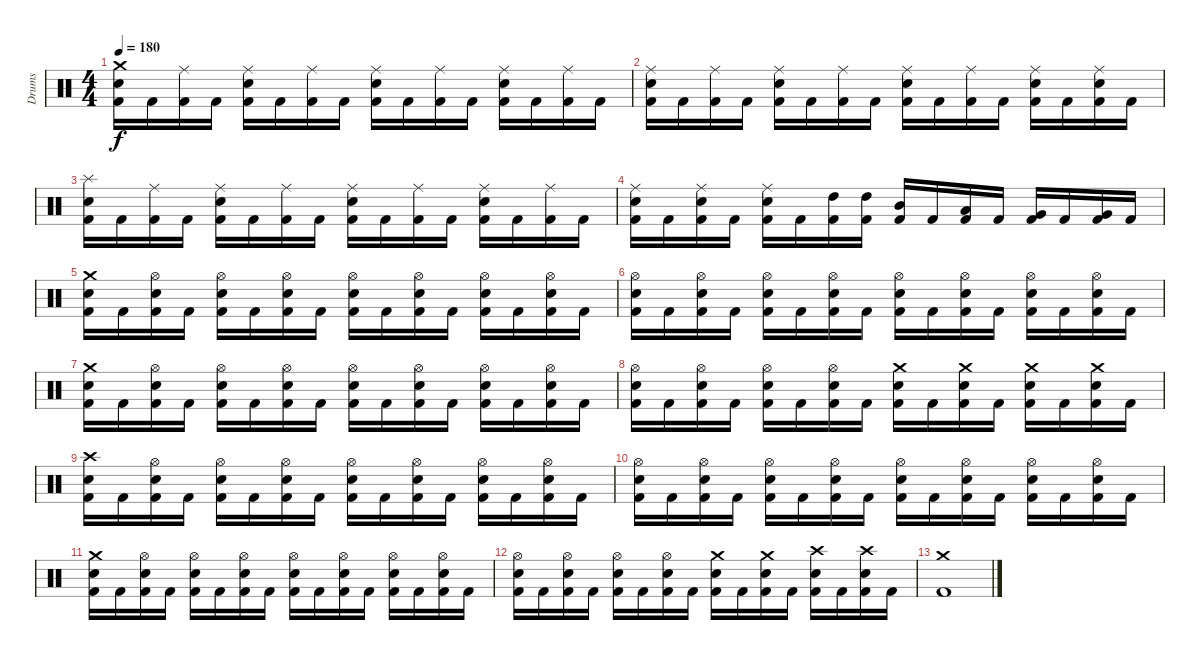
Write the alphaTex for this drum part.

\track ("Drums" "Drums") {instrument percussion}
\staff {score}
\articulation defaults
\ts (4 4)
\tempo 180
\clef neutral
\ks c
("Kick (hit) 2" "Electric Snare (hit)" "Crash medium (hit)").16{dy f} "Kick (hit) 2".16 ("Kick (hit) 2" "Ride (middle)").16 "Kick (hit) 2".16 ("Kick (hit) 2" "Electric Snare (hit)" "Ride (middle)").16 "Kick (hit) 2".16 ("Kick (hit) 2" "Ride (middle)").16 "Kick (hit) 2".16 ("Kick (hit) 2" "Electric Snare (hit)" "Ride (middle)").16 "Kick (hit) 2".16 ("Kick (hit) 2" "Ride (middle)").16 "Kick (hit) 2".16 ("Kick (hit) 2" "Electric Snare (hit)" "Ride (middle)").16 "Kick (hit) 2".16 ("Kick (hit) 2" "Ride (middle)").16 "Kick (hit) 2".16 |
("Kick (hit) 2" "Electric Snare (hit)" "Ride (middle)").16 "Kick (hit) 2".16 ("Kick (hit) 2" "Ride (middle)").16 "Kick (hit) 2".16 ("Kick (hit) 2" "Electric Snare (hit)" "Ride (middle)").16 "Kick (hit) 2".16 ("Kick (hit) 2" "Ride (middle)").16 "Kick (hit) 2".16 ("Kick (hit) 2" "Electric Snare (hit)" "Ride (middle)").16 "Kick (hit) 2".16 ("Kick (hit) 2" "Ride (middle)").16 "Kick (hit) 2".16 ("Kick (hit) 2" "Electric Snare (hit)" "Ride (middle)").16 "Kick (hit) 2".16 ("Kick (hit) 2" "Electric Snare (hit)" "Ride (middle)").16 "Kick (hit) 2".16 |
("Kick (hit) 2" "Electric Snare (hit)" "Splash (hit)").16 "Kick (hit) 2".16 ("Kick (hit) 2" "Ride (middle)").16 "Kick (hit) 2".16 ("Kick (hit) 2" "Electric Snare (hit)" "Ride (middle)").16 "Kick (hit) 2".16 ("Kick (hit) 2" "Ride (middle)").16 "Kick (hit) 2".16 ("Kick (hit) 2" "Electric Snare (hit)" "Ride (middle)").16 "Kick (hit) 2".16 ("Kick (hit) 2" "Ride (middle)").16 "Kick (hit) 2".16 ("Kick (hit) 2" "Electric Snare (hit)" "Ride (middle)").16 "Kick (hit) 2".16 ("Kick (hit) 2" "Ride (middle)").16 "Kick (hit) 2".16 |
("Kick (hit) 2" "Electric Snare (hit)" "Ride (middle)").16 "Kick (hit) 2".16 ("Kick (hit) 2" "Electric Snare (hit)" "Ride (middle)").16 "Kick (hit) 2".16 ("Kick (hit) 2" "Electric Snare (hit)" "Ride (middle)").16 "Kick (hit) 2".16 ("Kick (hit) 2" "High Tom (hit)").16 ("Kick (hit) 2" "High Tom (hit)").16 ("Kick (hit) 2" "Mid Tom (hit)").16 "Kick (hit) 2".16 ("Kick (hit) 2" "Low Tom (hit)").16 "Kick (hit) 2".16 ("Kick (hit) 2" "Very Low Tom (hit)").16 "Kick (hit) 2".16 ("Kick (hit) 2" "Very Low Tom (hit)").16 "Kick (hit) 2".16 |
("Kick (hit) 2" "Electric Snare (hit)" "Crash medium (hit)").16 "Kick (hit) 2".16 ("Kick (hit) 2" "Electric Snare (hit)" "Hi-Hat (open)").16 "Kick (hit) 2".16 ("Kick (hit) 2" "Electric Snare (hit)" "Hi-Hat (open)").16 "Kick (hit) 2".16 ("Kick (hit) 2" "Electric Snare (hit)" "Hi-Hat (open)").16 "Kick (hit) 2".16 ("Kick (hit) 2" "Electric Snare (hit)" "Hi-Hat (open)").16 "Kick (hit) 2".16 ("Kick (hit) 2" "Electric Snare (hit)" "Hi-Hat (open)").16 "Kick (hit) 2".16 ("Kick (hit) 2" "Electric Snare (hit)" "Hi-Hat (open)").16 "Kick (hit) 2".16 ("Kick (hit) 2" "Electric Snare (hit)" "Hi-Hat (open)").16 "Kick (hit) 2".16 |
("Kick (hit) 2" "Electric Snare (hit)" "Hi-Hat (open)").16 "Kick (hit) 2".16 ("Kick (hit) 2" "Electric Snare (hit)" "Hi-Hat (open)").16 "Kick (hit) 2".16 ("Kick (hit) 2" "Electric Snare (hit)" "Hi-Hat (open)").16 "Kick (hit) 2".16 ("Kick (hit) 2" "Electric Snare (hit)" "Hi-Hat (open)").16 "Kick (hit) 2".16 ("Kick (hit) 2" "Electric Snare (hit)" "Hi-Hat (open)").16 "Kick (hit) 2".16 ("Kick (hit) 2" "Electric Snare (hit)" "Hi-Hat (open)").16 "Kick (hit) 2".16 ("Kick (hit) 2" "Electric Snare (hit)" "Hi-Hat (open)").16 "Kick (hit) 2".16 ("Kick (hit) 2" "Electric Snare (hit)" "Hi-Hat (open)").16 "Kick (hit) 2".16 |
("Kick (hit) 2" "Electric Snare (hit)" "Crash medium (hit)").16 "Kick (hit) 2".16 ("Kick (hit) 2" "Electric Snare (hit)" "Hi-Hat (open)").16 "Kick (hit) 2".16 ("Kick (hit) 2" "Electric Snare (hit)" "Hi-Hat (open)").16 "Kick (hit) 2".16 ("Kick (hit) 2" "Electric Snare (hit)" "Hi-Hat (open)").16 "Kick (hit) 2".16 ("Kick (hit) 2" "Electric Snare (hit)" "Hi-Hat (open)").16 "Kick (hit) 2".16 ("Kick (hit) 2" "Electric Snare (hit)" "Hi-Hat (open)").16 "Kick (hit) 2".16 ("Kick (hit) 2" "Electric Snare (hit)" "Hi-Hat (open)").16 "Kick (hit) 2".16 ("Kick (hit) 2" "Electric Snare (hit)" "Hi-Hat (open)").16 "Kick (hit) 2".16 |
("Kick (hit) 2" "Electric Snare (hit)" "Hi-Hat (open)").16 "Kick (hit) 2".16 ("Kick (hit) 2" "Electric Snare (hit)" "Hi-Hat (open)").16 "Kick (hit) 2".16 ("Kick (hit) 2" "Electric Snare (hit)" "Hi-Hat (open)").16 "Kick (hit) 2".16 ("Kick (hit) 2" "Electric Snare (hit)" "Hi-Hat (open)").16 "Kick (hit) 2".16 ("Kick (hit) 2" "Electric Snare (hit)" "Crash medium (hit)").16 "Kick (hit) 2".16 ("Kick (hit) 2" "Electric Snare (hit)" "Crash medium (hit)").16 "Kick (hit) 2".16 ("Kick (hit) 2" "Electric Snare (hit)" "Crash medium (hit)").16 "Kick (hit) 2".16 ("Kick (hit) 2" "Electric Snare (hit)" "Crash medium (hit)").16 "Kick (hit) 2".16 |
("Kick (hit) 2" "Electric Snare (hit)" "Crash high (hit)").16 "Kick (hit) 2".16 ("Kick (hit) 2" "Electric Snare (hit)" "Hi-Hat (open)").16 "Kick (hit) 2".16 ("Kick (hit) 2" "Electric Snare (hit)" "Hi-Hat (open)").16 "Kick (hit) 2".16 ("Kick (hit) 2" "Electric Snare (hit)" "Hi-Hat (open)").16 "Kick (hit) 2".16 ("Kick (hit) 2" "Electric Snare (hit)" "Hi-Hat (open)").16 "Kick (hit) 2".16 ("Kick (hit) 2" "Electric Snare (hit)" "Hi-Hat (open)").16 "Kick (hit) 2".16 ("Kick (hit) 2" "Electric Snare (hit)" "Hi-Hat (open)").16 "Kick (hit) 2".16 ("Kick (hit) 2" "Electric Snare (hit)" "Hi-Hat (open)").16 "Kick (hit) 2".16 |
("Kick (hit) 2" "Electric Snare (hit)" "Hi-Hat (open)").16 "Kick (hit) 2".16 ("Kick (hit) 2" "Electric Snare (hit)" "Hi-Hat (open)").16 "Kick (hit) 2".16 ("Kick (hit) 2" "Electric Snare (hit)" "Hi-Hat (open)").16 "Kick (hit) 2".16 ("Kick (hit) 2" "Electric Snare (hit)" "Hi-Hat (open)").16 "Kick (hit) 2".16 ("Kick (hit) 2" "Electric Snare (hit)" "Hi-Hat (open)").16 "Kick (hit) 2".16 ("Kick (hit) 2" "Electric Snare (hit)" "Hi-Hat (open)").16 "Kick (hit) 2".16 ("Kick (hit) 2" "Electric Snare (hit)" "Hi-Hat (open)").16 "Kick (hit) 2".16 ("Kick (hit) 2" "Electric Snare (hit)" "Hi-Hat (open)").16 "Kick (hit) 2".16 |
("Kick (hit) 2" "Electric Snare (hit)" "Crash medium (hit)").16 "Kick (hit) 2".16 ("Kick (hit) 2" "Electric Snare (hit)" "Hi-Hat (open)").16 "Kick (hit) 2".16 ("Kick (hit) 2" "Electric Snare (hit)" "Hi-Hat (open)").16 "Kick (hit) 2".16 ("Kick (hit) 2" "Electric Snare (hit)" "Hi-Hat (open)").16 "Kick (hit) 2".16 ("Kick (hit) 2" "Electric Snare (hit)" "Hi-Hat (open)").16 "Kick (hit) 2".16 ("Kick (hit) 2" "Electric Snare (hit)" "Hi-Hat (open)").16 "Kick (hit) 2".16 ("Kick (hit) 2" "Electric Snare (hit)" "Hi-Hat (open)").16 "Kick (hit) 2".16 ("Kick (hit) 2" "Electric Snare (hit)" "Hi-Hat (open)").16 "Kick (hit) 2".16 |
("Kick (hit) 2" "Electric Snare (hit)" "Hi-Hat (open)").16 "Kick (hit) 2".16 ("Kick (hit) 2" "Electric Snare (hit)" "Hi-Hat (open)").16 "Kick (hit) 2".16 ("Kick (hit) 2" "Electric Snare (hit)" "Hi-Hat (open)").16 "Kick (hit) 2".16 ("Kick (hit) 2" "Electric Snare (hit)" "Hi-Hat (open)").16 "Kick (hit) 2".16 ("Kick (hit) 2" "Electric Snare (hit)" "Crash medium (hit)").16 "Kick (hit) 2".16 ("Kick (hit) 2" "Electric Snare (hit)" "Crash medium (hit)").16 "Kick (hit) 2".16 ("Kick (hit) 2" "Electric Snare (hit)" "Crash high (hit)").16 "Kick (hit) 2".16 ("Kick (hit) 2" "Electric Snare (hit)" "Crash high (hit)").16 "Kick (hit) 2".16 |
("Kick (hit) 2" "Crash medium (hit)").1
